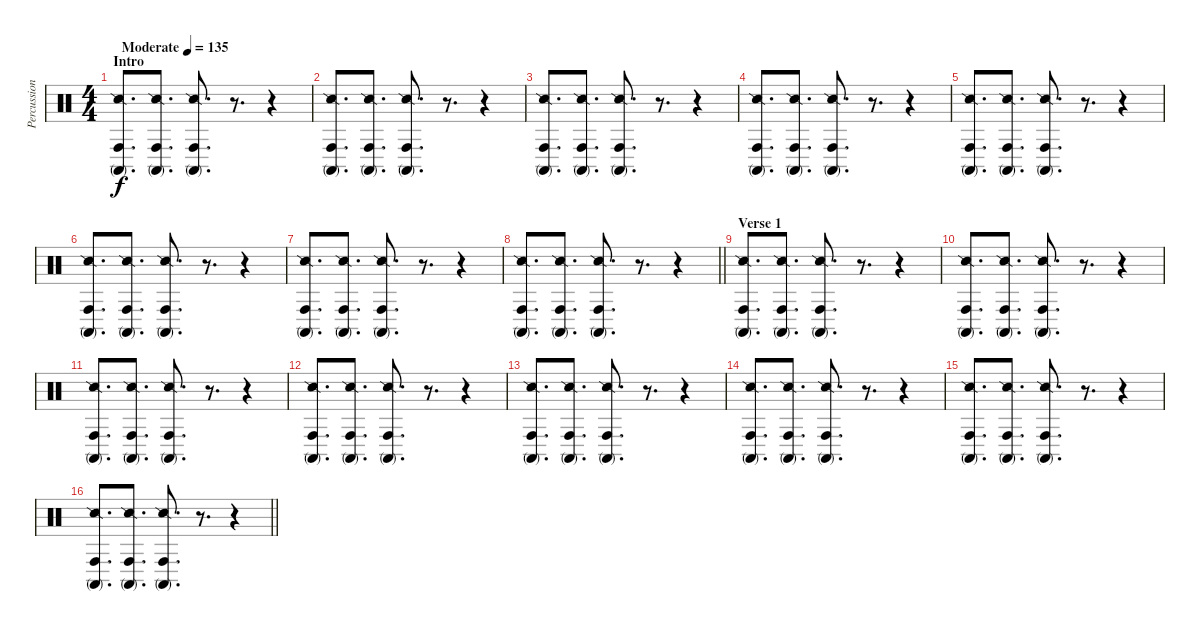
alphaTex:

\track ("Percussion FX" "Percussion") {instrument percussion}
\staff {score}
\articulation defaults
\ts (4 4)
\section ("" "Intro")
\tempo (135 "Moderate")
\clef neutral
\ks c
("Snare (side stick) 2" "Conga high (mute)" "Conga high (hit)").8{d dy f} ("Snare (side stick) 2" "Conga high (mute)" "Conga high (hit)").8{d} ("Snare (side stick) 2" "Conga high (mute)" "Conga high (hit)").8{d} r.8{d} r.4 |
("Snare (side stick) 2" "Conga high (mute)" "Conga high (hit)").8{d} ("Snare (side stick) 2" "Conga high (mute)" "Conga high (hit)").8{d} ("Snare (side stick) 2" "Conga high (mute)" "Conga high (hit)").8{d} r.8{d} r.4 |
("Snare (side stick) 2" "Conga high (mute)" "Conga high (hit)").8{d} ("Snare (side stick) 2" "Conga high (mute)" "Conga high (hit)").8{d} ("Snare (side stick) 2" "Conga high (mute)" "Conga high (hit)").8{d} r.8{d} r.4 |
("Snare (side stick) 2" "Conga high (mute)" "Conga high (hit)").8{d} ("Snare (side stick) 2" "Conga high (mute)" "Conga high (hit)").8{d} ("Snare (side stick) 2" "Conga high (mute)" "Conga high (hit)").8{d} r.8{d} r.4 |
("Snare (side stick) 2" "Conga high (mute)" "Conga high (hit)").8{d} ("Snare (side stick) 2" "Conga high (mute)" "Conga high (hit)").8{d} ("Snare (side stick) 2" "Conga high (mute)" "Conga high (hit)").8{d} r.8{d} r.4 |
("Snare (side stick) 2" "Conga high (mute)" "Conga high (hit)").8{d} ("Snare (side stick) 2" "Conga high (mute)" "Conga high (hit)").8{d} ("Snare (side stick) 2" "Conga high (mute)" "Conga high (hit)").8{d} r.8{d} r.4 |
("Snare (side stick) 2" "Conga high (mute)" "Conga high (hit)").8{d} ("Snare (side stick) 2" "Conga high (mute)" "Conga high (hit)").8{d} ("Snare (side stick) 2" "Conga high (mute)" "Conga high (hit)").8{d} r.8{d} r.4 |
\barLineRight lightlight
("Snare (side stick) 2" "Conga high (mute)" "Conga high (hit)").8{d} ("Snare (side stick) 2" "Conga high (mute)" "Conga high (hit)").8{d} ("Snare (side stick) 2" "Conga high (mute)" "Conga high (hit)").8{d} r.8{d} r.4 |
\section ("" "Verse 1")
("Snare (side stick) 2" "Conga high (mute)" "Conga high (hit)").8{d} ("Snare (side stick) 2" "Conga high (mute)" "Conga high (hit)").8{d} ("Snare (side stick) 2" "Conga high (mute)" "Conga high (hit)").8{d} r.8{d} r.4 |
("Snare (side stick) 2" "Conga high (mute)" "Conga high (hit)").8{d} ("Snare (side stick) 2" "Conga high (mute)" "Conga high (hit)").8{d} ("Snare (side stick) 2" "Conga high (mute)" "Conga high (hit)").8{d} r.8{d} r.4 |
("Snare (side stick) 2" "Conga high (mute)" "Conga high (hit)").8{d} ("Snare (side stick) 2" "Conga high (mute)" "Conga high (hit)").8{d} ("Snare (side stick) 2" "Conga high (mute)" "Conga high (hit)").8{d} r.8{d} r.4 |
("Snare (side stick) 2" "Conga high (mute)" "Conga high (hit)").8{d} ("Snare (side stick) 2" "Conga high (mute)" "Conga high (hit)").8{d} ("Snare (side stick) 2" "Conga high (mute)" "Conga high (hit)").8{d} r.8{d} r.4 |
("Snare (side stick) 2" "Conga high (mute)" "Conga high (hit)").8{d} ("Snare (side stick) 2" "Conga high (mute)" "Conga high (hit)").8{d} ("Snare (side stick) 2" "Conga high (mute)" "Conga high (hit)").8{d} r.8{d} r.4 |
("Snare (side stick) 2" "Conga high (mute)" "Conga high (hit)").8{d} ("Snare (side stick) 2" "Conga high (mute)" "Conga high (hit)").8{d} ("Snare (side stick) 2" "Conga high (mute)" "Conga high (hit)").8{d} r.8{d} r.4 |
("Snare (side stick) 2" "Conga high (mute)" "Conga high (hit)").8{d} ("Snare (side stick) 2" "Conga high (mute)" "Conga high (hit)").8{d} ("Snare (side stick) 2" "Conga high (mute)" "Conga high (hit)").8{d} r.8{d} r.4 |
\barLineRight lightlight
("Snare (side stick) 2" "Conga high (mute)" "Conga high (hit)").8{d} ("Snare (side stick) 2" "Conga high (mute)" "Conga high (hit)").8{d} ("Snare (side stick) 2" "Conga high (mute)" "Conga high (hit)").8{d} r.8{d} r.4
